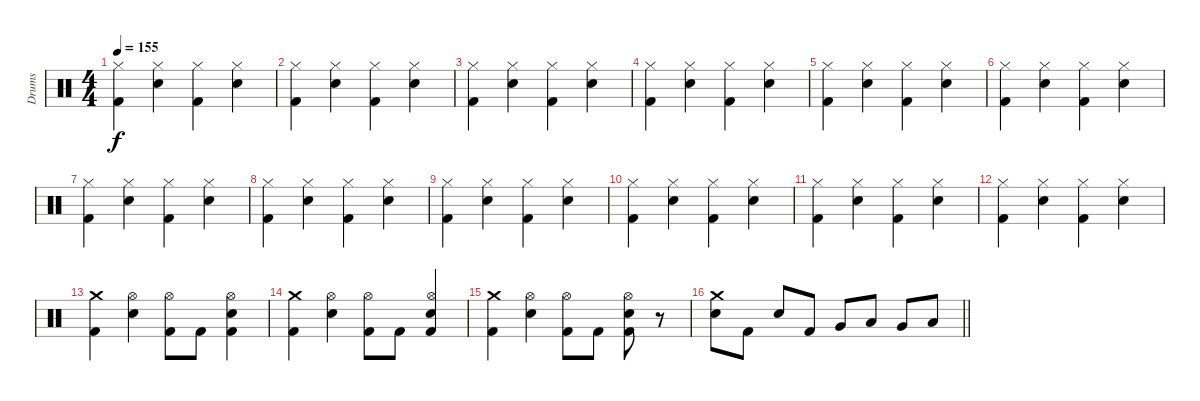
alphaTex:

\track ("Drums" "Drums") {instrument percussion}
\staff {score}
\articulation defaults
\ts (4 4)
\tempo 155
\clef neutral
\ks c
("Kick (hit) 2" "Hi-Hat (closed)").4{dy f} ("Electric Snare (hit)" "Hi-Hat (closed)").4 ("Kick (hit) 2" "Hi-Hat (closed)").4 ("Electric Snare (hit)" "Hi-Hat (closed)").4 |
("Kick (hit) 2" "Hi-Hat (closed)").4 ("Electric Snare (hit)" "Hi-Hat (closed)").4 ("Kick (hit) 2" "Hi-Hat (closed)").4 ("Electric Snare (hit)" "Hi-Hat (closed)").4 |
("Kick (hit) 2" "Hi-Hat (closed)").4 ("Electric Snare (hit)" "Hi-Hat (closed)").4 ("Kick (hit) 2" "Hi-Hat (closed)").4 ("Electric Snare (hit)" "Hi-Hat (closed)").4 |
("Kick (hit) 2" "Hi-Hat (closed)").4 ("Electric Snare (hit)" "Hi-Hat (closed)").4 ("Kick (hit) 2" "Hi-Hat (closed)").4 ("Electric Snare (hit)" "Hi-Hat (closed)").4 |
("Kick (hit) 2" "Hi-Hat (closed)").4 ("Electric Snare (hit)" "Hi-Hat (closed)").4 ("Kick (hit) 2" "Hi-Hat (closed)").4 ("Electric Snare (hit)" "Hi-Hat (closed)").4 |
("Kick (hit) 2" "Hi-Hat (closed)").4 ("Electric Snare (hit)" "Hi-Hat (closed)").4 ("Kick (hit) 2" "Hi-Hat (closed)").4 ("Electric Snare (hit)" "Hi-Hat (closed)").4 |
("Kick (hit) 2" "Hi-Hat (closed)").4 ("Electric Snare (hit)" "Hi-Hat (closed)").4 ("Kick (hit) 2" "Hi-Hat (closed)").4 ("Electric Snare (hit)" "Hi-Hat (closed)").4 |
("Kick (hit) 2" "Hi-Hat (closed)").4 ("Electric Snare (hit)" "Hi-Hat (closed)").4 ("Kick (hit) 2" "Hi-Hat (closed)").4 ("Electric Snare (hit)" "Hi-Hat (closed)").4 |
("Kick (hit) 2" "Hi-Hat (closed)").4 ("Electric Snare (hit)" "Hi-Hat (closed)").4 ("Kick (hit) 2" "Hi-Hat (closed)").4 ("Electric Snare (hit)" "Hi-Hat (closed)").4 |
("Kick (hit) 2" "Hi-Hat (closed)").4 ("Electric Snare (hit)" "Hi-Hat (closed)").4 ("Kick (hit) 2" "Hi-Hat (closed)").4 ("Electric Snare (hit)" "Hi-Hat (closed)").4 |
("Kick (hit) 2" "Hi-Hat (closed)").4 ("Electric Snare (hit)" "Hi-Hat (closed)").4 ("Kick (hit) 2" "Hi-Hat (closed)").4 ("Electric Snare (hit)" "Hi-Hat (closed)").4 |
("Kick (hit) 2" "Hi-Hat (closed)").4 ("Electric Snare (hit)" "Hi-Hat (closed)").4 ("Kick (hit) 2" "Hi-Hat (closed)").4 ("Electric Snare (hit)" "Hi-Hat (closed)").4 |
("Kick (hit) 2" "Crash medium (hit)").4 ("Electric Snare (hit)" "Hi-Hat (open)").4 ("Kick (hit) 2" "Hi-Hat (open)").8 "Kick (hit) 2".8 ("Electric Snare (hit)" "Hi-Hat (open)" "Kick (hit) 2").4 |
("Kick (hit) 2" "Crash medium (hit)").4 ("Electric Snare (hit)" "Hi-Hat (open)").4 ("Kick (hit) 2" "Hi-Hat (open)").8 "Kick (hit) 2".8 ("Snare (hit) 2" "Hi-Hat (open)" "Kick (hit) 2").4 |
("Kick (hit) 2" "Crash medium (hit)").4 ("Electric Snare (hit)" "Hi-Hat (open)").4 ("Kick (hit) 2" "Hi-Hat (open)").8 "Kick (hit) 2".8 ("Electric Snare (hit)" "Hi-Hat (open)" "Kick (hit) 2").8 r.8 |
\barLineRight lightlight
("Crash medium (hit)" "Electric Snare (hit)").8 "Kick (hit) 2".8 "Electric Snare (hit)".8 "Kick (hit) 2".8 "Very Low Tom (hit)".8 "Low Tom (hit)".8 "Very Low Tom (hit)".8 "Low Floor Tom (hit)".8
